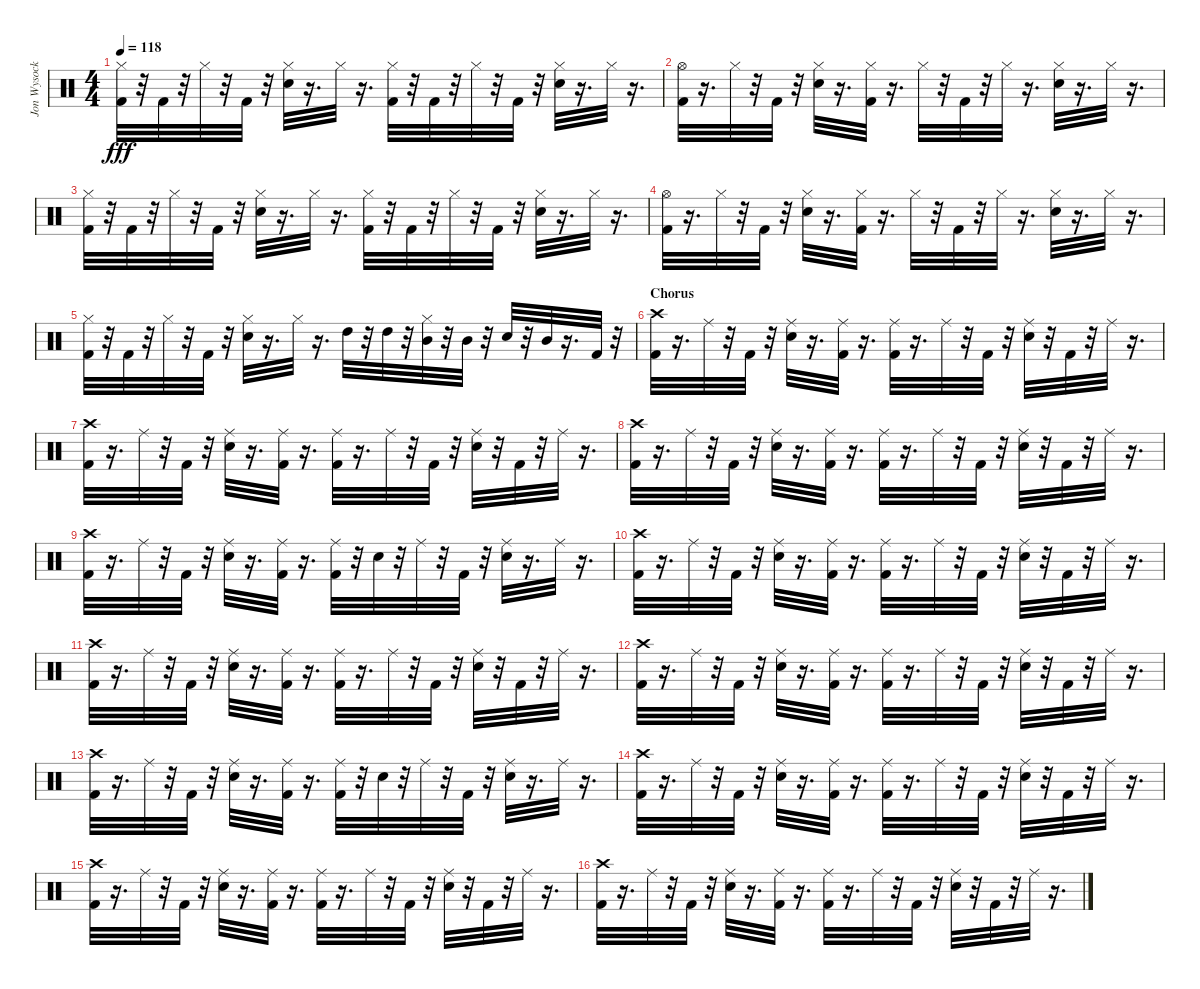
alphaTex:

\track ("Jon Wysocki - Drums" "Jon Wysock") {instrument percussion}
\staff {score}
\articulation defaults
\ts (4 4)
\tempo 118
\clef neutral
\ks c
("Hi-Hat (closed)" "Kick (hit) 2").32{dy fff} r.32 "Kick (hit) 2".32 r.32 "Hi-Hat (closed)".32 r.32 "Kick (hit) 2".32 r.32 ("Hi-Hat (closed)" "Electric Snare (hit)").32 r.16{d} "Hi-Hat (closed)".32 r.16{d} ("Hi-Hat (closed)" "Kick (hit) 2").32 r.32 "Kick (hit) 2".32 r.32 "Hi-Hat (closed)".32 r.32 "Kick (hit) 2".32 r.32 ("Hi-Hat (closed)" "Electric Snare (hit)").32 r.16{d} "Hi-Hat (closed)".32 r.16{d} |
("Kick (hit) 2" "Hi-Hat (open)").32 r.16{d} "Hi-Hat (closed)".32 r.32 "Kick (hit) 2".32 r.32 ("Electric Snare (hit)" "Hi-Hat (closed)").32 r.16{d} ("Hi-Hat (closed)" "Kick (hit) 2").32 r.16{d} "Hi-Hat (closed)".32 r.32 "Kick (hit) 2".32 r.32 "Hi-Hat (closed)".32 r.16{d} ("Electric Snare (hit)" "Hi-Hat (closed)").32 r.16{d} "Hi-Hat (closed)".32 r.16{d} |
("Hi-Hat (closed)" "Kick (hit) 2").32 r.32 "Kick (hit) 2".32 r.32 "Hi-Hat (closed)".32 r.32 "Kick (hit) 2".32 r.32 ("Hi-Hat (closed)" "Electric Snare (hit)").32 r.16{d} "Hi-Hat (closed)".32 r.16{d} ("Hi-Hat (closed)" "Kick (hit) 2").32 r.32 "Kick (hit) 2".32 r.32 "Hi-Hat (closed)".32 r.32 "Kick (hit) 2".32 r.32 ("Hi-Hat (closed)" "Electric Snare (hit)").32 r.16{d} "Hi-Hat (closed)".32 r.16{d} |
("Kick (hit) 2" "Hi-Hat (open)").32 r.16{d} "Hi-Hat (closed)".32 r.32 "Kick (hit) 2".32 r.32 ("Electric Snare (hit)" "Hi-Hat (closed)").32 r.16{d} ("Hi-Hat (closed)" "Kick (hit) 2").32 r.16{d} "Hi-Hat (closed)".32 r.32 "Kick (hit) 2".32 r.32 "Hi-Hat (closed)".32 r.16{d} ("Electric Snare (hit)" "Hi-Hat (closed)").32 r.16{d} "Hi-Hat (closed)".32 r.16{d} |
("Hi-Hat (closed)" "Kick (hit) 2").32 r.32 "Kick (hit) 2".32 r.32 "Hi-Hat (closed)".32 r.32 "Kick (hit) 2".32 r.32 ("Hi-Hat (closed)" "Electric Snare (hit)").32 r.16{d} "Hi-Hat (closed)".32 r.16{d} "High Tom (hit)".32 r.32 "High Tom (hit)".32 r.32 ("Hi-Hat (closed)" "Mid Tom (hit)").32 r.32 "Mid Tom (hit)".32 r.32 "Electric Snare (hit)".32 r.32 "Mid Tom (hit)".32 r.16{d} "Kick (hit) 2".32 r.32 |
\section ("" "Chorus")
("Kick (hit) 2" "Crash high (hit)").32 r.16{d} "Ride (middle)".32 r.32 "Kick (hit) 2".32 r.32 ("Ride (middle)" "Electric Snare (hit)").32 r.16{d} ("Ride (middle)" "Kick (hit) 2").32 r.16{d} ("Ride (middle)" "Kick (hit) 2").32 r.16{d} "Ride (middle)".32 r.32 "Kick (hit) 2".32 r.32 ("Ride (middle)" "Electric Snare (hit)").32 r.32 "Kick (hit) 2".32 r.32 "Ride (middle)".32 r.16{d} |
("Crash high (hit)" "Kick (hit) 2").32 r.16{d} "Ride (middle)".32 r.32 "Kick (hit) 2".32 r.32 ("Electric Snare (hit)" "Ride (middle)").32 r.16{d} ("Kick (hit) 2" "Ride (middle)").32 r.16{d} ("Kick (hit) 2" "Ride (middle)").32 r.16{d} "Ride (middle)".32 r.32 "Kick (hit) 2".32 r.32 ("Electric Snare (hit)" "Ride (middle)").32 r.32 "Kick (hit) 2".32 r.32 "Ride (middle)".32 r.16{d} |
("Crash high (hit)" "Kick (hit) 2").32 r.16{d} "Ride (middle)".32 r.32 "Kick (hit) 2".32 r.32 ("Electric Snare (hit)" "Ride (middle)").32 r.16{d} ("Kick (hit) 2" "Ride (middle)").32 r.16{d} ("Kick (hit) 2" "Ride (middle)").32 r.16{d} "Ride (middle)".32 r.32 "Kick (hit) 2".32 r.32 ("Electric Snare (hit)" "Ride (middle)").32 r.32 "Kick (hit) 2".32 r.32 "Ride (middle)".32 r.16{d} |
("Crash high (hit)" "Kick (hit) 2").32 r.16{d} "Ride (middle)".32 r.32 "Kick (hit) 2".32 r.32 ("Ride (middle)" "Electric Snare (hit)").32 r.16{d} ("Ride (middle)" "Kick (hit) 2").32 r.16{d} ("Ride (middle)" "Kick (hit) 2").32 r.32 "Electric Snare (hit)".32 r.32 "Ride (middle)".32 r.32 "Kick (hit) 2".32 r.32 ("Ride (middle)" "Electric Snare (hit)").32 r.16{d} "Ride (middle)".32 r.16{d} |
("Kick (hit) 2" "Crash high (hit)").32 r.16{d} "Ride (middle)".32 r.32 "Kick (hit) 2".32 r.32 ("Ride (middle)" "Electric Snare (hit)").32 r.16{d} ("Ride (middle)" "Kick (hit) 2").32 r.16{d} ("Ride (middle)" "Kick (hit) 2").32 r.16{d} "Ride (middle)".32 r.32 "Kick (hit) 2".32 r.32 ("Ride (middle)" "Electric Snare (hit)").32 r.32 "Kick (hit) 2".32 r.32 "Ride (middle)".32 r.16{d} |
("Crash high (hit)" "Kick (hit) 2").32 r.16{d} "Ride (middle)".32 r.32 "Kick (hit) 2".32 r.32 ("Electric Snare (hit)" "Ride (middle)").32 r.16{d} ("Kick (hit) 2" "Ride (middle)").32 r.16{d} ("Kick (hit) 2" "Ride (middle)").32 r.16{d} "Ride (middle)".32 r.32 "Kick (hit) 2".32 r.32 ("Electric Snare (hit)" "Ride (middle)").32 r.32 "Kick (hit) 2".32 r.32 "Ride (middle)".32 r.16{d} |
("Crash high (hit)" "Kick (hit) 2").32 r.16{d} "Ride (middle)".32 r.32 "Kick (hit) 2".32 r.32 ("Electric Snare (hit)" "Ride (middle)").32 r.16{d} ("Kick (hit) 2" "Ride (middle)").32 r.16{d} ("Kick (hit) 2" "Ride (middle)").32 r.16{d} "Ride (middle)".32 r.32 "Kick (hit) 2".32 r.32 ("Electric Snare (hit)" "Ride (middle)").32 r.32 "Kick (hit) 2".32 r.32 "Ride (middle)".32 r.16{d} |
("Crash high (hit)" "Kick (hit) 2").32 r.16{d} "Ride (middle)".32 r.32 "Kick (hit) 2".32 r.32 ("Ride (middle)" "Electric Snare (hit)").32 r.16{d} ("Ride (middle)" "Kick (hit) 2").32 r.16{d} ("Ride (middle)" "Kick (hit) 2").32 r.32 "Electric Snare (hit)".32 r.32 "Ride (middle)".32 r.32 "Kick (hit) 2".32 r.32 ("Ride (middle)" "Electric Snare (hit)").32 r.16{d} "Ride (middle)".32 r.16{d} |
("Kick (hit) 2" "Crash high (hit)").32 r.16{d} "Ride (middle)".32 r.32 "Kick (hit) 2".32 r.32 ("Ride (middle)" "Electric Snare (hit)").32 r.16{d} ("Ride (middle)" "Kick (hit) 2").32 r.16{d} ("Ride (middle)" "Kick (hit) 2").32 r.16{d} "Ride (middle)".32 r.32 "Kick (hit) 2".32 r.32 ("Ride (middle)" "Electric Snare (hit)").32 r.32 "Kick (hit) 2".32 r.32 "Ride (middle)".32 r.16{d} |
("Crash high (hit)" "Kick (hit) 2").32 r.16{d} "Ride (middle)".32 r.32 "Kick (hit) 2".32 r.32 ("Electric Snare (hit)" "Ride (middle)").32 r.16{d} ("Kick (hit) 2" "Ride (middle)").32 r.16{d} ("Kick (hit) 2" "Ride (middle)").32 r.16{d} "Ride (middle)".32 r.32 "Kick (hit) 2".32 r.32 ("Electric Snare (hit)" "Ride (middle)").32 r.32 "Kick (hit) 2".32 r.32 "Ride (middle)".32 r.16{d} |
("Crash high (hit)" "Kick (hit) 2").32 r.16{d} "Ride (middle)".32 r.32 "Kick (hit) 2".32 r.32 ("Electric Snare (hit)" "Ride (middle)").32 r.16{d} ("Kick (hit) 2" "Ride (middle)").32 r.16{d} ("Kick (hit) 2" "Ride (middle)").32 r.16{d} "Ride (middle)".32 r.32 "Kick (hit) 2".32 r.32 ("Electric Snare (hit)" "Ride (middle)").32 r.32 "Kick (hit) 2".32 r.32 "Ride (middle)".32 r.16{d}
